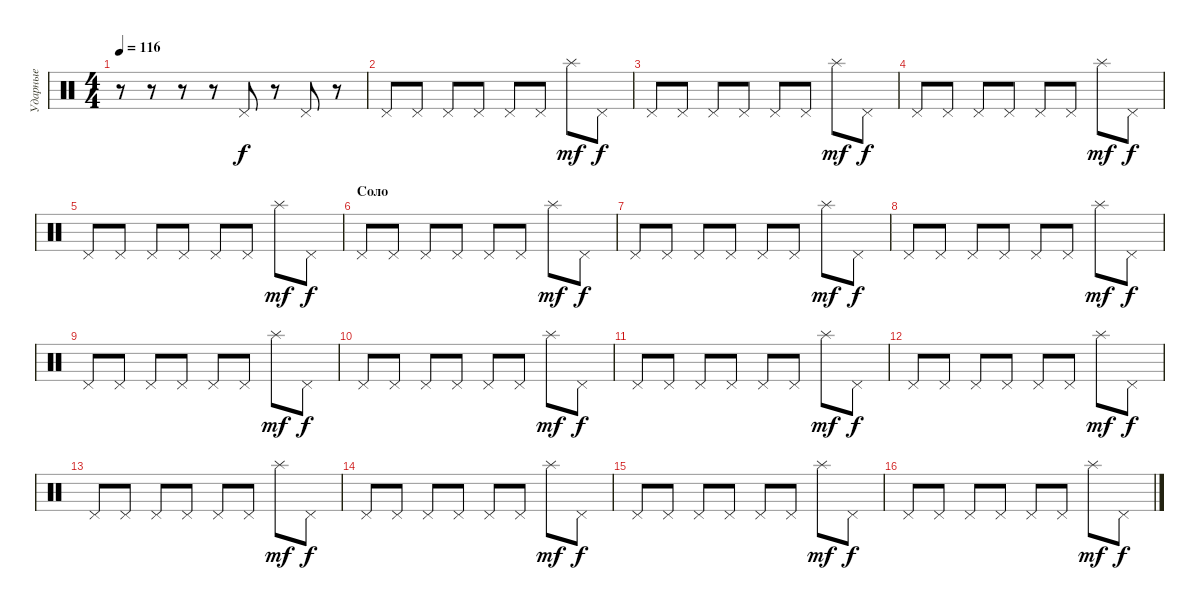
\track ("Ударные" "Ударные") {instrument percussion}
\staff {score}
\articulation defaults
\ts (4 4)
\tempo 116
\clef neutral
\ks c
r.8{dy f} r.8 r.8 r.8 "Pedal Hi-Hat (hit)".8 r.8 "Pedal Hi-Hat (hit)".8 r.8 |
"Pedal Hi-Hat (hit)".8 "Pedal Hi-Hat (hit)".8 "Pedal Hi-Hat (hit)".8 "Pedal Hi-Hat (hit)".8 "Pedal Hi-Hat (hit)".8 "Pedal Hi-Hat (hit)".8 "Splash (hit)".8{dy mf} "Pedal Hi-Hat (hit)".8{dy f} |
"Pedal Hi-Hat (hit)".8 "Pedal Hi-Hat (hit)".8 "Pedal Hi-Hat (hit)".8 "Pedal Hi-Hat (hit)".8 "Pedal Hi-Hat (hit)".8 "Pedal Hi-Hat (hit)".8 "Splash (hit)".8{dy mf} "Pedal Hi-Hat (hit)".8{dy f} |
"Pedal Hi-Hat (hit)".8 "Pedal Hi-Hat (hit)".8 "Pedal Hi-Hat (hit)".8 "Pedal Hi-Hat (hit)".8 "Pedal Hi-Hat (hit)".8 "Pedal Hi-Hat (hit)".8 "Splash (hit)".8{dy mf} "Pedal Hi-Hat (hit)".8{dy f} |
"Pedal Hi-Hat (hit)".8 "Pedal Hi-Hat (hit)".8 "Pedal Hi-Hat (hit)".8 "Pedal Hi-Hat (hit)".8 "Pedal Hi-Hat (hit)".8 "Pedal Hi-Hat (hit)".8 "Splash (hit)".8{dy mf} "Pedal Hi-Hat (hit)".8{dy f} |
\section ("" "Соло")
"Pedal Hi-Hat (hit)".8 "Pedal Hi-Hat (hit)".8 "Pedal Hi-Hat (hit)".8 "Pedal Hi-Hat (hit)".8 "Pedal Hi-Hat (hit)".8 "Pedal Hi-Hat (hit)".8 "Splash (hit)".8{dy mf} "Pedal Hi-Hat (hit)".8{dy f} |
"Pedal Hi-Hat (hit)".8 "Pedal Hi-Hat (hit)".8 "Pedal Hi-Hat (hit)".8 "Pedal Hi-Hat (hit)".8 "Pedal Hi-Hat (hit)".8 "Pedal Hi-Hat (hit)".8 "Splash (hit)".8{dy mf} "Pedal Hi-Hat (hit)".8{dy f} |
"Pedal Hi-Hat (hit)".8 "Pedal Hi-Hat (hit)".8 "Pedal Hi-Hat (hit)".8 "Pedal Hi-Hat (hit)".8 "Pedal Hi-Hat (hit)".8 "Pedal Hi-Hat (hit)".8 "Splash (hit)".8{dy mf} "Pedal Hi-Hat (hit)".8{dy f} |
"Pedal Hi-Hat (hit)".8 "Pedal Hi-Hat (hit)".8 "Pedal Hi-Hat (hit)".8 "Pedal Hi-Hat (hit)".8 "Pedal Hi-Hat (hit)".8 "Pedal Hi-Hat (hit)".8 "Splash (hit)".8{dy mf} "Pedal Hi-Hat (hit)".8{dy f} |
"Pedal Hi-Hat (hit)".8 "Pedal Hi-Hat (hit)".8 "Pedal Hi-Hat (hit)".8 "Pedal Hi-Hat (hit)".8 "Pedal Hi-Hat (hit)".8 "Pedal Hi-Hat (hit)".8 "Splash (hit)".8{dy mf} "Pedal Hi-Hat (hit)".8{dy f} |
"Pedal Hi-Hat (hit)".8 "Pedal Hi-Hat (hit)".8 "Pedal Hi-Hat (hit)".8 "Pedal Hi-Hat (hit)".8 "Pedal Hi-Hat (hit)".8 "Pedal Hi-Hat (hit)".8 "Splash (hit)".8{dy mf} "Pedal Hi-Hat (hit)".8{dy f} |
"Pedal Hi-Hat (hit)".8 "Pedal Hi-Hat (hit)".8 "Pedal Hi-Hat (hit)".8 "Pedal Hi-Hat (hit)".8 "Pedal Hi-Hat (hit)".8 "Pedal Hi-Hat (hit)".8 "Splash (hit)".8{dy mf} "Pedal Hi-Hat (hit)".8{dy f} |
"Pedal Hi-Hat (hit)".8 "Pedal Hi-Hat (hit)".8 "Pedal Hi-Hat (hit)".8 "Pedal Hi-Hat (hit)".8 "Pedal Hi-Hat (hit)".8 "Pedal Hi-Hat (hit)".8 "Splash (hit)".8{dy mf} "Pedal Hi-Hat (hit)".8{dy f} |
"Pedal Hi-Hat (hit)".8 "Pedal Hi-Hat (hit)".8 "Pedal Hi-Hat (hit)".8 "Pedal Hi-Hat (hit)".8 "Pedal Hi-Hat (hit)".8 "Pedal Hi-Hat (hit)".8 "Splash (hit)".8{dy mf} "Pedal Hi-Hat (hit)".8{dy f} |
"Pedal Hi-Hat (hit)".8 "Pedal Hi-Hat (hit)".8 "Pedal Hi-Hat (hit)".8 "Pedal Hi-Hat (hit)".8 "Pedal Hi-Hat (hit)".8 "Pedal Hi-Hat (hit)".8 "Splash (hit)".8{dy mf} "Pedal Hi-Hat (hit)".8{dy f} |
"Pedal Hi-Hat (hit)".8 "Pedal Hi-Hat (hit)".8 "Pedal Hi-Hat (hit)".8 "Pedal Hi-Hat (hit)".8 "Pedal Hi-Hat (hit)".8 "Pedal Hi-Hat (hit)".8 "Splash (hit)".8{dy mf} "Pedal Hi-Hat (hit)".8{dy f}
